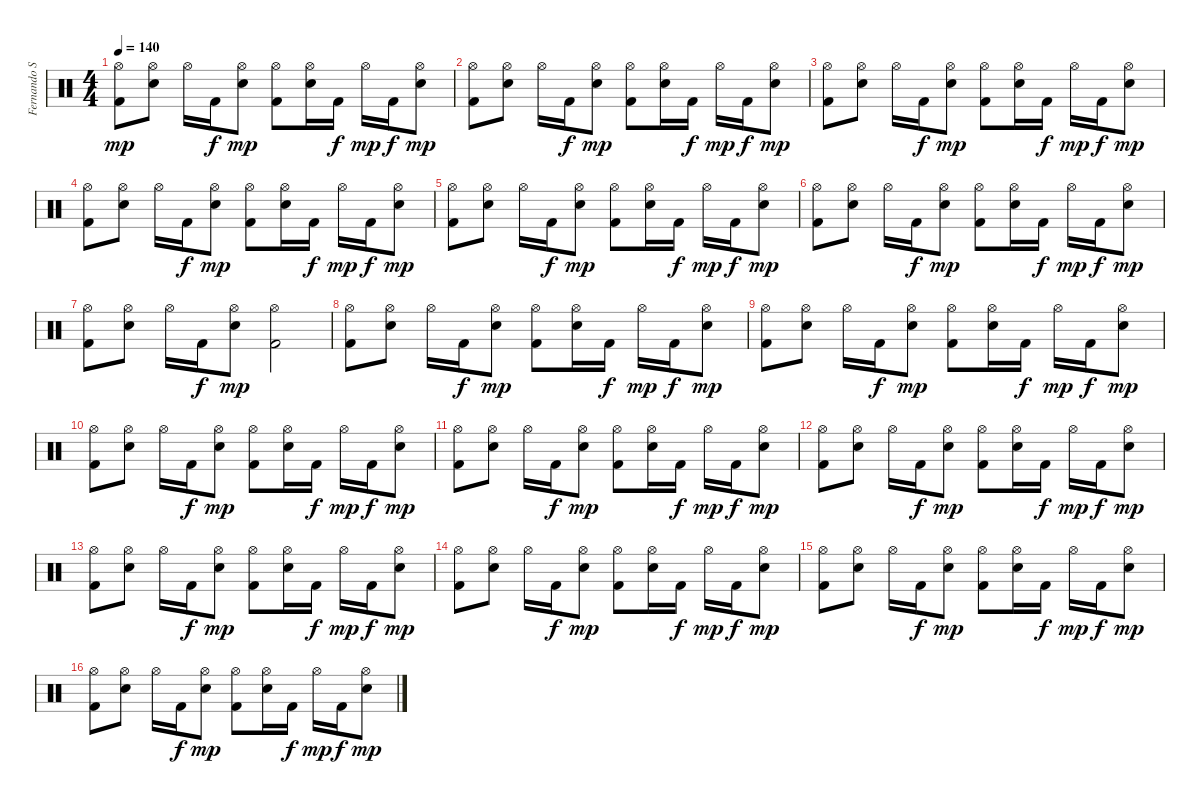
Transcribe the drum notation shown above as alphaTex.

\track ("Fernando Scarcella" "Fernando S") {instrument percussion}
\staff {score}
\articulation defaults
\ts (4 4)
\tempo 140
\clef neutral
\ks c
("Hi-Hat (open)" "Kick (hit) 2").8{dy mp} ("Hi-Hat (open)" "Snare (hit) 2").8 "Hi-Hat (open)".16 "Kick (hit) 2".16{dy f} ("Hi-Hat (open)" "Snare (hit) 2").8{dy mp} ("Hi-Hat (open)" "Kick (hit) 2").8 ("Hi-Hat (open)" "Snare (hit) 2").16 "Kick (hit) 2".16{dy f} "Hi-Hat (open)".16{dy mp} "Kick (hit) 2".16{dy f} ("Hi-Hat (open)" "Snare (hit) 2").8{dy mp} |
("Hi-Hat (open)" "Kick (hit) 2").8 ("Hi-Hat (open)" "Snare (hit) 2").8 "Hi-Hat (open)".16 "Kick (hit) 2".16{dy f} ("Hi-Hat (open)" "Snare (hit) 2").8{dy mp} ("Hi-Hat (open)" "Kick (hit) 2").8 ("Hi-Hat (open)" "Snare (hit) 2").16 "Kick (hit) 2".16{dy f} "Hi-Hat (open)".16{dy mp} "Kick (hit) 2".16{dy f} ("Hi-Hat (open)" "Snare (hit) 2").8{dy mp} |
("Hi-Hat (open)" "Kick (hit) 2").8 ("Hi-Hat (open)" "Snare (hit) 2").8 "Hi-Hat (open)".16 "Kick (hit) 2".16{dy f} ("Hi-Hat (open)" "Snare (hit) 2").8{dy mp} ("Hi-Hat (open)" "Kick (hit) 2").8 ("Hi-Hat (open)" "Snare (hit) 2").16 "Kick (hit) 2".16{dy f} "Hi-Hat (open)".16{dy mp} "Kick (hit) 2".16{dy f} ("Hi-Hat (open)" "Snare (hit) 2").8{dy mp} |
("Hi-Hat (open)" "Kick (hit) 2").8 ("Hi-Hat (open)" "Snare (hit) 2").8 "Hi-Hat (open)".16 "Kick (hit) 2".16{dy f} ("Hi-Hat (open)" "Snare (hit) 2").8{dy mp} ("Hi-Hat (open)" "Kick (hit) 2").8 ("Hi-Hat (open)" "Snare (hit) 2").16 "Kick (hit) 2".16{dy f} "Hi-Hat (open)".16{dy mp} "Kick (hit) 2".16{dy f} ("Hi-Hat (open)" "Snare (hit) 2").8{dy mp} |
("Hi-Hat (open)" "Kick (hit) 2").8 ("Hi-Hat (open)" "Snare (hit) 2").8 "Hi-Hat (open)".16 "Kick (hit) 2".16{dy f} ("Hi-Hat (open)" "Snare (hit) 2").8{dy mp} ("Hi-Hat (open)" "Kick (hit) 2").8 ("Hi-Hat (open)" "Snare (hit) 2").16 "Kick (hit) 2".16{dy f} "Hi-Hat (open)".16{dy mp} "Kick (hit) 2".16{dy f} ("Hi-Hat (open)" "Snare (hit) 2").8{dy mp} |
("Hi-Hat (open)" "Kick (hit) 2").8 ("Hi-Hat (open)" "Snare (hit) 2").8 "Hi-Hat (open)".16 "Kick (hit) 2".16{dy f} ("Hi-Hat (open)" "Snare (hit) 2").8{dy mp} ("Hi-Hat (open)" "Kick (hit) 2").8 ("Hi-Hat (open)" "Snare (hit) 2").16 "Kick (hit) 2".16{dy f} "Hi-Hat (open)".16{dy mp} "Kick (hit) 2".16{dy f} ("Hi-Hat (open)" "Snare (hit) 2").8{dy mp} |
("Hi-Hat (open)" "Kick (hit) 2").8 ("Hi-Hat (open)" "Snare (hit) 2").8 "Hi-Hat (open)".16 "Kick (hit) 2".16{dy f} ("Hi-Hat (open)" "Snare (hit) 2").8{dy mp} ("Hi-Hat (open)" "Kick (hit) 2").2 |
("Hi-Hat (open)" "Kick (hit) 2").8 ("Hi-Hat (open)" "Snare (hit) 2").8 "Hi-Hat (open)".16 "Kick (hit) 2".16{dy f} ("Hi-Hat (open)" "Snare (hit) 2").8{dy mp} ("Hi-Hat (open)" "Kick (hit) 2").8 ("Hi-Hat (open)" "Snare (hit) 2").16 "Kick (hit) 2".16{dy f} "Hi-Hat (open)".16{dy mp} "Kick (hit) 2".16{dy f} ("Hi-Hat (open)" "Snare (hit) 2").8{dy mp} |
("Hi-Hat (open)" "Kick (hit) 2").8 ("Hi-Hat (open)" "Snare (hit) 2").8 "Hi-Hat (open)".16 "Kick (hit) 2".16{dy f} ("Hi-Hat (open)" "Snare (hit) 2").8{dy mp} ("Hi-Hat (open)" "Kick (hit) 2").8 ("Hi-Hat (open)" "Snare (hit) 2").16 "Kick (hit) 2".16{dy f} "Hi-Hat (open)".16{dy mp} "Kick (hit) 2".16{dy f} ("Hi-Hat (open)" "Snare (hit) 2").8{dy mp} |
("Hi-Hat (open)" "Kick (hit) 2").8 ("Hi-Hat (open)" "Snare (hit) 2").8 "Hi-Hat (open)".16 "Kick (hit) 2".16{dy f} ("Hi-Hat (open)" "Snare (hit) 2").8{dy mp} ("Hi-Hat (open)" "Kick (hit) 2").8 ("Hi-Hat (open)" "Snare (hit) 2").16 "Kick (hit) 2".16{dy f} "Hi-Hat (open)".16{dy mp} "Kick (hit) 2".16{dy f} ("Hi-Hat (open)" "Snare (hit) 2").8{dy mp} |
("Hi-Hat (open)" "Kick (hit) 2").8 ("Hi-Hat (open)" "Snare (hit) 2").8 "Hi-Hat (open)".16 "Kick (hit) 2".16{dy f} ("Hi-Hat (open)" "Snare (hit) 2").8{dy mp} ("Hi-Hat (open)" "Kick (hit) 2").8 ("Hi-Hat (open)" "Snare (hit) 2").16 "Kick (hit) 2".16{dy f} "Hi-Hat (open)".16{dy mp} "Kick (hit) 2".16{dy f} ("Hi-Hat (open)" "Snare (hit) 2").8{dy mp} |
("Hi-Hat (open)" "Kick (hit) 2").8 ("Hi-Hat (open)" "Snare (hit) 2").8 "Hi-Hat (open)".16 "Kick (hit) 2".16{dy f} ("Hi-Hat (open)" "Snare (hit) 2").8{dy mp} ("Hi-Hat (open)" "Kick (hit) 2").8 ("Hi-Hat (open)" "Snare (hit) 2").16 "Kick (hit) 2".16{dy f} "Hi-Hat (open)".16{dy mp} "Kick (hit) 2".16{dy f} ("Hi-Hat (open)" "Snare (hit) 2").8{dy mp} |
("Hi-Hat (open)" "Kick (hit) 2").8 ("Hi-Hat (open)" "Snare (hit) 2").8 "Hi-Hat (open)".16 "Kick (hit) 2".16{dy f} ("Hi-Hat (open)" "Snare (hit) 2").8{dy mp} ("Hi-Hat (open)" "Kick (hit) 2").8 ("Hi-Hat (open)" "Snare (hit) 2").16 "Kick (hit) 2".16{dy f} "Hi-Hat (open)".16{dy mp} "Kick (hit) 2".16{dy f} ("Hi-Hat (open)" "Snare (hit) 2").8{dy mp} |
("Hi-Hat (open)" "Kick (hit) 2").8 ("Hi-Hat (open)" "Snare (hit) 2").8 "Hi-Hat (open)".16 "Kick (hit) 2".16{dy f} ("Hi-Hat (open)" "Snare (hit) 2").8{dy mp} ("Hi-Hat (open)" "Kick (hit) 2").8 ("Hi-Hat (open)" "Snare (hit) 2").16 "Kick (hit) 2".16{dy f} "Hi-Hat (open)".16{dy mp} "Kick (hit) 2".16{dy f} ("Hi-Hat (open)" "Snare (hit) 2").8{dy mp} |
("Hi-Hat (open)" "Kick (hit) 2").8 ("Hi-Hat (open)" "Snare (hit) 2").8 "Hi-Hat (open)".16 "Kick (hit) 2".16{dy f} ("Hi-Hat (open)" "Snare (hit) 2").8{dy mp} ("Hi-Hat (open)" "Kick (hit) 2").8 ("Hi-Hat (open)" "Snare (hit) 2").16 "Kick (hit) 2".16{dy f} "Hi-Hat (open)".16{dy mp} "Kick (hit) 2".16{dy f} ("Hi-Hat (open)" "Snare (hit) 2").8{dy mp} |
("Hi-Hat (open)" "Kick (hit) 2").8 ("Hi-Hat (open)" "Snare (hit) 2").8 "Hi-Hat (open)".16 "Kick (hit) 2".16{dy f} ("Hi-Hat (open)" "Snare (hit) 2").8{dy mp} ("Hi-Hat (open)" "Kick (hit) 2").8 ("Hi-Hat (open)" "Snare (hit) 2").16 "Kick (hit) 2".16{dy f} "Hi-Hat (open)".16{dy mp} "Kick (hit) 2".16{dy f} ("Hi-Hat (open)" "Snare (hit) 2").8{dy mp}
